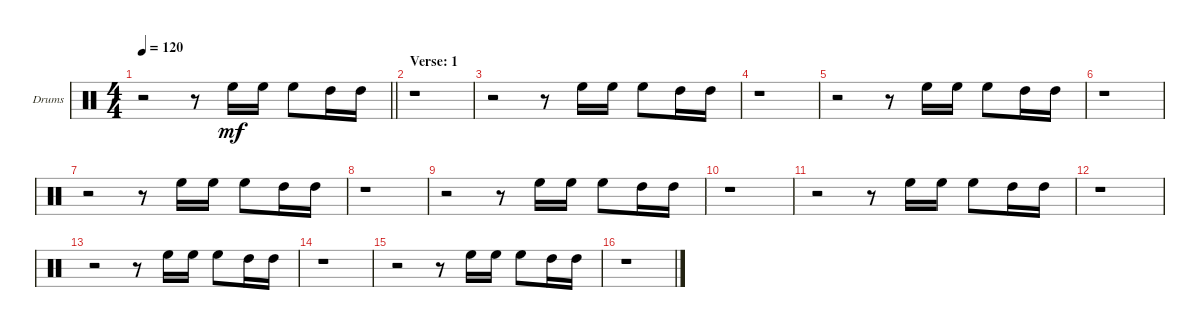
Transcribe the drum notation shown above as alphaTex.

\bracketExtendMode groupsimilarinstruments
\firstSystemTrackNameOrientation horizontal
\otherSystemsTrackNameOrientation horizontal
\track ("Drumkit" "Drums") {instrument percussion}
\staff {score}
\articulation defaults
\ts (4 4)
\tempo 120
\clef neutral
\barLineRight lightlight
\ks c
r.2{dy mf} r.8 "High Floor Tom (hit)".16 "High Floor Tom (hit)".16 "High Floor Tom (hit)".8 "High Tom (hit)".16 "High Tom (hit)".16 |
\section ("" "Verse: 1")
r.1 |
r.2 r.8 "High Floor Tom (hit)".16 "High Floor Tom (hit)".16 "High Floor Tom (hit)".8 "High Tom (hit)".16 "High Tom (hit)".16 |
r.1 |
r.2 r.8 "High Floor Tom (hit)".16 "High Floor Tom (hit)".16 "High Floor Tom (hit)".8 "High Tom (hit)".16 "High Tom (hit)".16 |
r.1 |
r.2 r.8 "High Floor Tom (hit)".16 "High Floor Tom (hit)".16 "High Floor Tom (hit)".8 "High Tom (hit)".16 "High Tom (hit)".16 |
r.1 |
r.2 r.8 "High Floor Tom (hit)".16 "High Floor Tom (hit)".16 "High Floor Tom (hit)".8 "High Tom (hit)".16 "High Tom (hit)".16 |
r.1 |
r.2 r.8 "High Floor Tom (hit)".16 "High Floor Tom (hit)".16 "High Floor Tom (hit)".8 "High Tom (hit)".16 "High Tom (hit)".16 |
r.1 |
r.2 r.8 "High Floor Tom (hit)".16 "High Floor Tom (hit)".16 "High Floor Tom (hit)".8 "High Tom (hit)".16 "High Tom (hit)".16 |
r.1 |
r.2 r.8 "High Floor Tom (hit)".16 "High Floor Tom (hit)".16 "High Floor Tom (hit)".8 "High Tom (hit)".16 "High Tom (hit)".16 |
r.1
